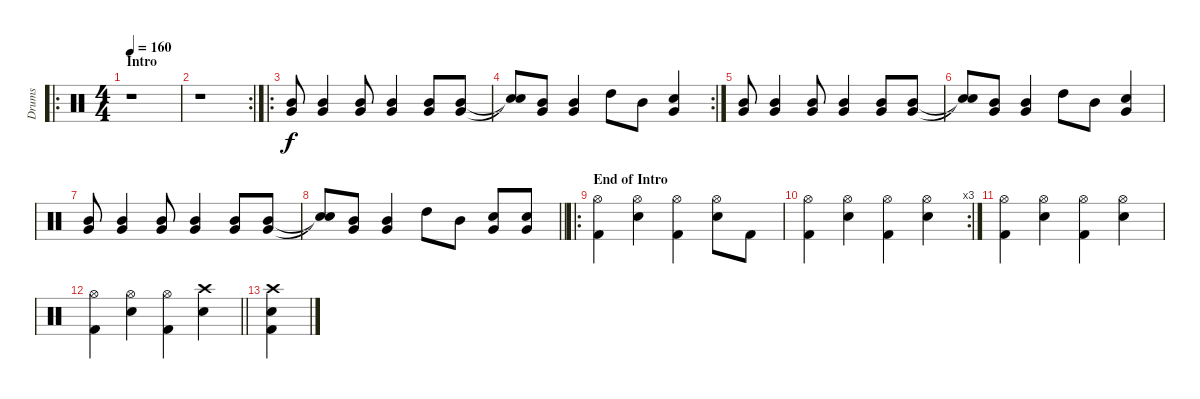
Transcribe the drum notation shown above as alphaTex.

\track ("Drums" "Drums") {instrument percussion}
\staff {score}
\articulation defaults
\ro
\ts (4 4)
\section ("" "Intro")
\tempo 160
\clef neutral
\ks c
r.1{dy f} |
\rc 2
r.1 |
\ro
("Mid Tom (hit)" "Very Low Tom (hit)").8 ("Mid Tom (hit)" "Very Low Tom (hit)").4 ("Mid Tom (hit)" "Very Low Tom (hit)").8 ("Mid Tom (hit)" "Very Low Tom (hit)").4 ("Mid Tom (hit)" "Very Low Tom (hit)").8 ("Mid Tom (hit)" "Very Low Tom (hit)").8 |
\rc 2
("Snare (hit)"{t} "Snare (hit)"{t}).8 ("Mid Tom (hit)" "Very Low Tom (hit)").8 ("Mid Tom (hit)" "Very Low Tom (hit)").4 "High Tom (hit)".8 "Mid Tom (hit)".8 ("Very Low Tom (hit)" "Electric Snare (hit)").4 |
("Mid Tom (hit)" "Very Low Tom (hit)").8 ("Mid Tom (hit)" "Very Low Tom (hit)").4 ("Mid Tom (hit)" "Very Low Tom (hit)").8 ("Mid Tom (hit)" "Very Low Tom (hit)").4 ("Mid Tom (hit)" "Very Low Tom (hit)").8 ("Mid Tom (hit)" "Very Low Tom (hit)").8 |
("Snare (hit)"{t} "Snare (hit)"{t}).8 ("Mid Tom (hit)" "Very Low Tom (hit)").8 ("Mid Tom (hit)" "Very Low Tom (hit)").4 "High Tom (hit)".8 "Mid Tom (hit)".8 ("Very Low Tom (hit)" "Electric Snare (hit)").4 |
("Mid Tom (hit)" "Very Low Tom (hit)").8 ("Mid Tom (hit)" "Very Low Tom (hit)").4 ("Mid Tom (hit)" "Very Low Tom (hit)").8 ("Mid Tom (hit)" "Very Low Tom (hit)").4 ("Mid Tom (hit)" "Very Low Tom (hit)").8 ("Mid Tom (hit)" "Very Low Tom (hit)").8 |
\barLineRight lightlight
("Snare (hit)"{t} "Snare (hit)"{t}).8 ("Mid Tom (hit)" "Very Low Tom (hit)").8 ("Mid Tom (hit)" "Very Low Tom (hit)").4 "High Tom (hit)".8 "Mid Tom (hit)".8 ("Very Low Tom (hit)" "Electric Snare (hit)").8 ("Very Low Tom (hit)" "Electric Snare (hit)").8 |
\ro
\section ("" "End of Intro")
("Hi-Hat (open)" "Kick (hit) 2").4 ("Hi-Hat (open)" "Electric Snare (hit)").4 ("Hi-Hat (open)" "Kick (hit) 2").4 ("Hi-Hat (open)" "Electric Snare (hit)").8 "Kick (hit) 2".8 |
\rc 3
("Hi-Hat (open)" "Kick (hit) 2").4 ("Hi-Hat (open)" "Electric Snare (hit)").4 ("Hi-Hat (open)" "Kick (hit) 2").4 ("Hi-Hat (open)" "Electric Snare (hit)").4 |
("Hi-Hat (open)" "Kick (hit) 2").4 ("Hi-Hat (open)" "Electric Snare (hit)").4 ("Hi-Hat (open)" "Kick (hit) 2").4 ("Hi-Hat (open)" "Electric Snare (hit)").4 |
\barLineRight lightlight
("Hi-Hat (open)" "Kick (hit) 2").4 ("Hi-Hat (open)" "Electric Snare (hit)").4 ("Hi-Hat (open)" "Kick (hit) 2").4 ("Crash high (hit)" "Electric Snare (hit)").4 |
("Crash high (hit)" "Electric Snare (hit)" "Kick (hit) 2").4
